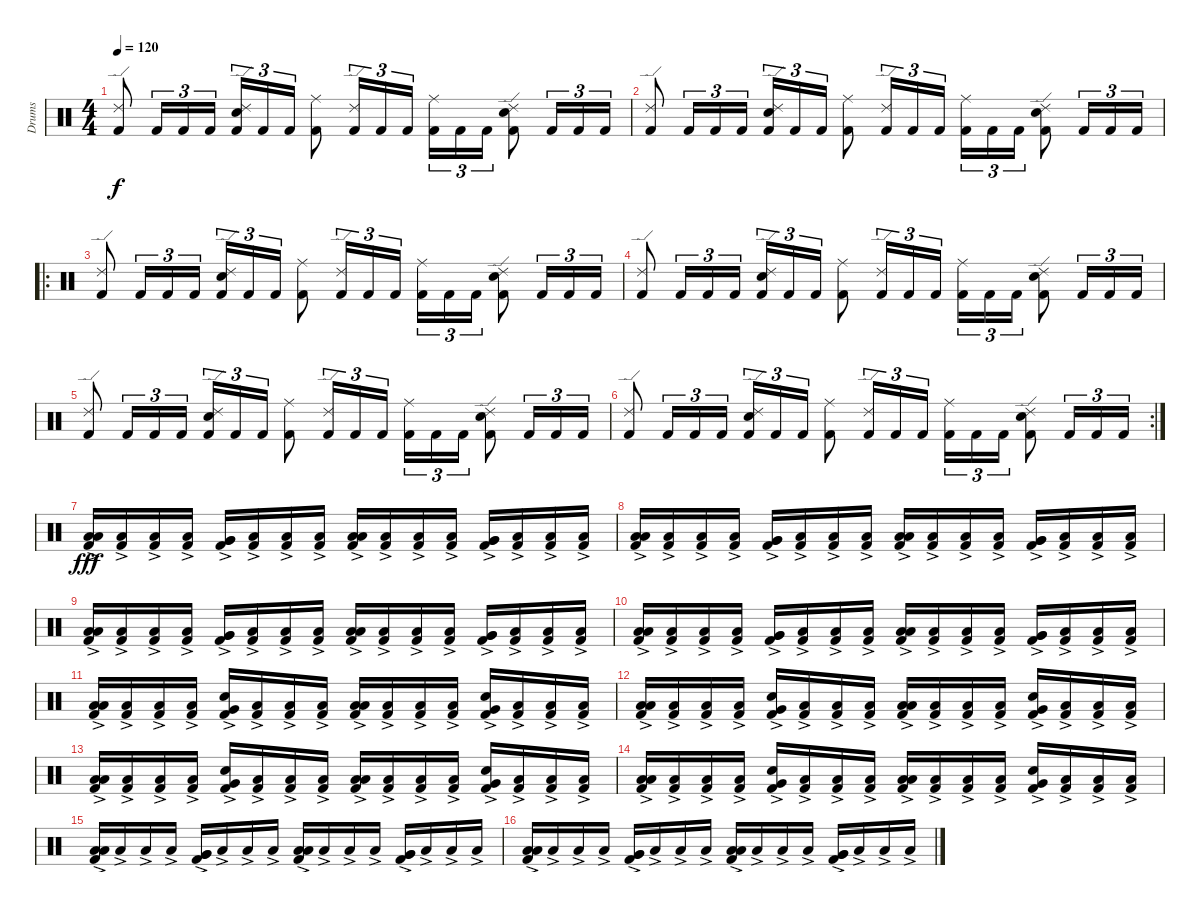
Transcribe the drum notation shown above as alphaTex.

\track ("Drums" "Drums") {instrument percussion}
\staff {score}
\articulation defaults
\ts (4 4)
\tempo 120
\clef neutral
\ks c
("Ride (edge) 2" "Kick (hit) 2").8{dy f} "Kick (hit) 2".16{tu (3 2)} "Kick (hit) 2".16{tu (3 2)} "Kick (hit) 2".16{tu (3 2)} ("Ride (edge) 2" "Electric Snare (hit)" "Kick (hit) 2").16{tu (3 2)} "Kick (hit) 2".16{tu (3 2)} "Kick (hit) 2".16{tu (3 2)} ("Ride (middle)" "Kick (hit) 2").8 ("Ride (edge) 2" "Kick (hit) 2").16{tu (3 2)} "Kick (hit) 2".16{tu (3 2)} "Kick (hit) 2".16{tu (3 2)} ("Ride (middle)" "Kick (hit) 2").16{tu (3 2)} "Kick (hit) 2".16{tu (3 2)} "Kick (hit) 2".16{tu (3 2)} ("Ride (edge) 2" "Electric Snare (hit)" "Kick (hit) 2").8 "Kick (hit) 2".16{tu (3 2)} "Kick (hit) 2".16{tu (3 2)} "Kick (hit) 2".16{tu (3 2)} |
("Ride (edge) 2" "Kick (hit) 2").8 "Kick (hit) 2".16{tu (3 2)} "Kick (hit) 2".16{tu (3 2)} "Kick (hit) 2".16{tu (3 2)} ("Ride (edge) 2" "Electric Snare (hit)" "Kick (hit) 2").16{tu (3 2)} "Kick (hit) 2".16{tu (3 2)} "Kick (hit) 2".16{tu (3 2)} ("Ride (middle)" "Kick (hit) 2").8 ("Ride (edge) 2" "Kick (hit) 2").16{tu (3 2)} "Kick (hit) 2".16{tu (3 2)} "Kick (hit) 2".16{tu (3 2)} ("Ride (middle)" "Kick (hit) 2").16{tu (3 2)} "Kick (hit) 2".16{tu (3 2)} "Kick (hit) 2".16{tu (3 2)} ("Ride (edge) 2" "Electric Snare (hit)" "Kick (hit) 2").8 "Kick (hit) 2".16{tu (3 2)} "Kick (hit) 2".16{tu (3 2)} "Kick (hit) 2".16{tu (3 2)} |
\ro
("Ride (edge) 2" "Kick (hit) 2").8 "Kick (hit) 2".16{tu (3 2)} "Kick (hit) 2".16{tu (3 2)} "Kick (hit) 2".16{tu (3 2)} ("Ride (edge) 2" "Electric Snare (hit)" "Kick (hit) 2").16{tu (3 2)} "Kick (hit) 2".16{tu (3 2)} "Kick (hit) 2".16{tu (3 2)} ("Ride (middle)" "Kick (hit) 2").8 ("Ride (edge) 2" "Kick (hit) 2").16{tu (3 2)} "Kick (hit) 2".16{tu (3 2)} "Kick (hit) 2".16{tu (3 2)} ("Ride (middle)" "Kick (hit) 2").16{tu (3 2)} "Kick (hit) 2".16{tu (3 2)} "Kick (hit) 2".16{tu (3 2)} ("Ride (edge) 2" "Electric Snare (hit)" "Kick (hit) 2").8 "Kick (hit) 2".16{tu (3 2)} "Kick (hit) 2".16{tu (3 2)} "Kick (hit) 2".16{tu (3 2)} |
("Ride (edge) 2" "Kick (hit) 2").8 "Kick (hit) 2".16{tu (3 2)} "Kick (hit) 2".16{tu (3 2)} "Kick (hit) 2".16{tu (3 2)} ("Ride (edge) 2" "Electric Snare (hit)" "Kick (hit) 2").16{tu (3 2)} "Kick (hit) 2".16{tu (3 2)} "Kick (hit) 2".16{tu (3 2)} ("Ride (middle)" "Kick (hit) 2").8 ("Ride (edge) 2" "Kick (hit) 2").16{tu (3 2)} "Kick (hit) 2".16{tu (3 2)} "Kick (hit) 2".16{tu (3 2)} ("Ride (middle)" "Kick (hit) 2").16{tu (3 2)} "Kick (hit) 2".16{tu (3 2)} "Kick (hit) 2".16{tu (3 2)} ("Ride (edge) 2" "Electric Snare (hit)" "Kick (hit) 2").8 "Kick (hit) 2".16{tu (3 2)} "Kick (hit) 2".16{tu (3 2)} "Kick (hit) 2".16{tu (3 2)} |
("Ride (edge) 2" "Kick (hit) 2").8 "Kick (hit) 2".16{tu (3 2)} "Kick (hit) 2".16{tu (3 2)} "Kick (hit) 2".16{tu (3 2)} ("Ride (edge) 2" "Electric Snare (hit)" "Kick (hit) 2").16{tu (3 2)} "Kick (hit) 2".16{tu (3 2)} "Kick (hit) 2".16{tu (3 2)} ("Ride (middle)" "Kick (hit) 2").8 ("Ride (edge) 2" "Kick (hit) 2").16{tu (3 2)} "Kick (hit) 2".16{tu (3 2)} "Kick (hit) 2".16{tu (3 2)} ("Ride (middle)" "Kick (hit) 2").16{tu (3 2)} "Kick (hit) 2".16{tu (3 2)} "Kick (hit) 2".16{tu (3 2)} ("Ride (edge) 2" "Electric Snare (hit)" "Kick (hit) 2").8 "Kick (hit) 2".16{tu (3 2)} "Kick (hit) 2".16{tu (3 2)} "Kick (hit) 2".16{tu (3 2)} |
\rc 2
("Ride (edge) 2" "Kick (hit) 2").8 "Kick (hit) 2".16{tu (3 2)} "Kick (hit) 2".16{tu (3 2)} "Kick (hit) 2".16{tu (3 2)} ("Ride (edge) 2" "Electric Snare (hit)" "Kick (hit) 2").16{tu (3 2)} "Kick (hit) 2".16{tu (3 2)} "Kick (hit) 2".16{tu (3 2)} ("Ride (middle)" "Kick (hit) 2").8 ("Ride (edge) 2" "Kick (hit) 2").16{tu (3 2)} "Kick (hit) 2".16{tu (3 2)} "Kick (hit) 2".16{tu (3 2)} ("Ride (middle)" "Kick (hit) 2").16{tu (3 2)} "Kick (hit) 2".16{tu (3 2)} "Kick (hit) 2".16{tu (3 2)} ("Ride (edge) 2" "Electric Snare (hit)" "Kick (hit) 2").8 "Kick (hit) 2".16{tu (3 2)} "Kick (hit) 2".16{tu (3 2)} "Kick (hit) 2".16{tu (3 2)} |
("Low Floor Tom (hit)"{ac} "Low Floor Tom (hit)"{ac} "Kick (hit) 2").16{dy fff} ("Low Floor Tom (hit)"{ac} "Kick (hit) 2").16 ("Low Floor Tom (hit)"{ac} "Kick (hit) 2").16 ("Low Floor Tom (hit)"{ac} "Kick (hit) 2").16 ("Very Low Tom (hit)"{ac} "Very Low Tom (hit)"{ac} "Kick (hit) 2").16 ("Low Floor Tom (hit)"{ac} "Kick (hit) 2").16 ("Low Floor Tom (hit)"{ac} "Kick (hit) 2").16 ("Low Floor Tom (hit)"{ac} "Kick (hit) 2").16 ("Low Floor Tom (hit)"{ac} "Low Floor Tom (hit)"{ac} "Kick (hit) 2").16 ("Low Floor Tom (hit)"{ac} "Kick (hit) 2").16 ("Low Floor Tom (hit)"{ac} "Kick (hit) 2").16 ("Low Floor Tom (hit)"{ac} "Kick (hit) 2").16 ("Very Low Tom (hit)"{ac} "Very Low Tom (hit)"{ac} "Kick (hit) 2").16 ("Low Floor Tom (hit)"{ac} "Kick (hit) 2").16 ("Low Floor Tom (hit)"{ac} "Kick (hit) 2").16 ("Low Floor Tom (hit)"{ac} "Kick (hit) 2").16 |
("Low Floor Tom (hit)"{ac} "Low Floor Tom (hit)"{ac} "Kick (hit) 2").16 ("Low Floor Tom (hit)"{ac} "Kick (hit) 2").16 ("Low Floor Tom (hit)"{ac} "Kick (hit) 2").16 ("Low Floor Tom (hit)"{ac} "Kick (hit) 2").16 ("Very Low Tom (hit)"{ac} "Very Low Tom (hit)"{ac} "Kick (hit) 2").16 ("Low Floor Tom (hit)"{ac} "Kick (hit) 2").16 ("Low Floor Tom (hit)"{ac} "Kick (hit) 2").16 ("Low Floor Tom (hit)"{ac} "Kick (hit) 2").16 ("Low Floor Tom (hit)"{ac} "Low Floor Tom (hit)"{ac} "Kick (hit) 2").16 ("Low Floor Tom (hit)"{ac} "Kick (hit) 2").16 ("Low Floor Tom (hit)"{ac} "Kick (hit) 2").16 ("Low Floor Tom (hit)"{ac} "Kick (hit) 2").16 ("Very Low Tom (hit)"{ac} "Very Low Tom (hit)"{ac} "Kick (hit) 2").16 ("Low Floor Tom (hit)"{ac} "Kick (hit) 2").16 ("Low Floor Tom (hit)"{ac} "Kick (hit) 2").16 ("Low Floor Tom (hit)"{ac} "Kick (hit) 2").16 |
("Low Floor Tom (hit)"{ac} "Low Floor Tom (hit)"{ac} "Kick (hit) 2").16 ("Low Floor Tom (hit)"{ac} "Kick (hit) 2").16 ("Low Floor Tom (hit)"{ac} "Kick (hit) 2").16 ("Low Floor Tom (hit)"{ac} "Kick (hit) 2").16 ("Very Low Tom (hit)"{ac} "Very Low Tom (hit)"{ac} "Kick (hit) 2").16 ("Low Floor Tom (hit)"{ac} "Kick (hit) 2").16 ("Low Floor Tom (hit)"{ac} "Kick (hit) 2").16 ("Low Floor Tom (hit)"{ac} "Kick (hit) 2").16 ("Low Floor Tom (hit)"{ac} "Low Floor Tom (hit)"{ac} "Kick (hit) 2").16 ("Low Floor Tom (hit)"{ac} "Kick (hit) 2").16 ("Low Floor Tom (hit)"{ac} "Kick (hit) 2").16 ("Low Floor Tom (hit)"{ac} "Kick (hit) 2").16 ("Very Low Tom (hit)"{ac} "Very Low Tom (hit)"{ac} "Kick (hit) 2").16 ("Low Floor Tom (hit)"{ac} "Kick (hit) 2").16 ("Low Floor Tom (hit)"{ac} "Kick (hit) 2").16 ("Low Floor Tom (hit)"{ac} "Kick (hit) 2").16 |
("Low Floor Tom (hit)"{ac} "Low Floor Tom (hit)"{ac} "Kick (hit) 2").16 ("Low Floor Tom (hit)"{ac} "Kick (hit) 2").16 ("Low Floor Tom (hit)"{ac} "Kick (hit) 2").16 ("Low Floor Tom (hit)"{ac} "Kick (hit) 2").16 ("Very Low Tom (hit)"{ac} "Very Low Tom (hit)"{ac} "Kick (hit) 2").16 ("Low Floor Tom (hit)"{ac} "Kick (hit) 2").16 ("Low Floor Tom (hit)"{ac} "Kick (hit) 2").16 ("Low Floor Tom (hit)"{ac} "Kick (hit) 2").16 ("Low Floor Tom (hit)"{ac} "Low Floor Tom (hit)"{ac} "Kick (hit) 2").16 ("Low Floor Tom (hit)"{ac} "Kick (hit) 2").16 ("Low Floor Tom (hit)"{ac} "Kick (hit) 2").16 ("Low Floor Tom (hit)"{ac} "Kick (hit) 2").16 ("Very Low Tom (hit)"{ac} "Very Low Tom (hit)"{ac} "Kick (hit) 2").16 ("Low Floor Tom (hit)"{ac} "Kick (hit) 2").16 ("Low Floor Tom (hit)"{ac} "Kick (hit) 2").16 ("Low Floor Tom (hit)"{ac} "Kick (hit) 2").16 |
("Low Floor Tom (hit)"{ac} "Low Floor Tom (hit)"{ac} "Kick (hit) 2").16 ("Low Floor Tom (hit)"{ac} "Kick (hit) 2").16 ("Low Floor Tom (hit)"{ac} "Kick (hit) 2").16 ("Low Floor Tom (hit)"{ac} "Kick (hit) 2").16 ("Very Low Tom (hit)"{ac} "Electric Snare (hit)" "Kick (hit) 2").16 ("Low Floor Tom (hit)"{ac} "Kick (hit) 2").16 ("Low Floor Tom (hit)"{ac} "Kick (hit) 2").16 ("Low Floor Tom (hit)"{ac} "Kick (hit) 2").16 ("Low Floor Tom (hit)"{ac} "Low Floor Tom (hit)"{ac} "Kick (hit) 2").16 ("Low Floor Tom (hit)"{ac} "Kick (hit) 2").16 ("Low Floor Tom (hit)"{ac} "Kick (hit) 2").16 ("Low Floor Tom (hit)"{ac} "Kick (hit) 2").16 ("Very Low Tom (hit)"{ac} "Electric Snare (hit)" "Kick (hit) 2").16 ("Low Floor Tom (hit)"{ac} "Kick (hit) 2").16 ("Low Floor Tom (hit)"{ac} "Kick (hit) 2").16 ("Low Floor Tom (hit)"{ac} "Kick (hit) 2").16 |
("Low Floor Tom (hit)"{ac} "Low Floor Tom (hit)"{ac} "Kick (hit) 2").16 ("Low Floor Tom (hit)"{ac} "Kick (hit) 2").16 ("Low Floor Tom (hit)"{ac} "Kick (hit) 2").16 ("Low Floor Tom (hit)"{ac} "Kick (hit) 2").16 ("Very Low Tom (hit)"{ac} "Electric Snare (hit)" "Kick (hit) 2").16 ("Low Floor Tom (hit)"{ac} "Kick (hit) 2").16 ("Low Floor Tom (hit)"{ac} "Kick (hit) 2").16 ("Low Floor Tom (hit)"{ac} "Kick (hit) 2").16 ("Low Floor Tom (hit)"{ac} "Low Floor Tom (hit)"{ac} "Kick (hit) 2").16 ("Low Floor Tom (hit)"{ac} "Kick (hit) 2").16 ("Low Floor Tom (hit)"{ac} "Kick (hit) 2").16 ("Low Floor Tom (hit)"{ac} "Kick (hit) 2").16 ("Very Low Tom (hit)"{ac} "Electric Snare (hit)" "Kick (hit) 2").16 ("Low Floor Tom (hit)"{ac} "Kick (hit) 2").16 ("Low Floor Tom (hit)"{ac} "Kick (hit) 2").16 ("Low Floor Tom (hit)"{ac} "Kick (hit) 2").16 |
("Low Floor Tom (hit)"{ac} "Low Floor Tom (hit)"{ac} "Kick (hit) 2").16 ("Low Floor Tom (hit)"{ac} "Kick (hit) 2").16 ("Low Floor Tom (hit)"{ac} "Kick (hit) 2").16 ("Low Floor Tom (hit)"{ac} "Kick (hit) 2").16 ("Very Low Tom (hit)"{ac} "Electric Snare (hit)" "Kick (hit) 2").16 ("Low Floor Tom (hit)"{ac} "Kick (hit) 2").16 ("Low Floor Tom (hit)"{ac} "Kick (hit) 2").16 ("Low Floor Tom (hit)"{ac} "Kick (hit) 2").16 ("Low Floor Tom (hit)"{ac} "Low Floor Tom (hit)"{ac} "Kick (hit) 2").16 ("Low Floor Tom (hit)"{ac} "Kick (hit) 2").16 ("Low Floor Tom (hit)"{ac} "Kick (hit) 2").16 ("Low Floor Tom (hit)"{ac} "Kick (hit) 2").16 ("Very Low Tom (hit)"{ac} "Electric Snare (hit)" "Kick (hit) 2").16 ("Low Floor Tom (hit)"{ac} "Kick (hit) 2").16 ("Low Floor Tom (hit)"{ac} "Kick (hit) 2").16 ("Low Floor Tom (hit)"{ac} "Kick (hit) 2").16 |
("Low Floor Tom (hit)"{ac} "Low Floor Tom (hit)"{ac} "Kick (hit) 2").16 ("Low Floor Tom (hit)"{ac} "Kick (hit) 2").16 ("Low Floor Tom (hit)"{ac} "Kick (hit) 2").16 ("Low Floor Tom (hit)"{ac} "Kick (hit) 2").16 ("Very Low Tom (hit)"{ac} "Electric Snare (hit)" "Kick (hit) 2").16 ("Low Floor Tom (hit)"{ac} "Kick (hit) 2").16 ("Low Floor Tom (hit)"{ac} "Kick (hit) 2").16 ("Low Floor Tom (hit)"{ac} "Kick (hit) 2").16 ("Low Floor Tom (hit)"{ac} "Low Floor Tom (hit)"{ac} "Kick (hit) 2").16 ("Low Floor Tom (hit)"{ac} "Kick (hit) 2").16 ("Low Floor Tom (hit)"{ac} "Kick (hit) 2").16 ("Low Floor Tom (hit)"{ac} "Kick (hit) 2").16 ("Very Low Tom (hit)"{ac} "Electric Snare (hit)" "Kick (hit) 2").16 ("Low Floor Tom (hit)"{ac} "Kick (hit) 2").16 ("Low Floor Tom (hit)"{ac} "Kick (hit) 2").16 ("Low Floor Tom (hit)"{ac} "Kick (hit) 2").16 |
("Low Floor Tom (hit)"{ac} "Low Floor Tom (hit)"{ac} "Kick (hit) 2").16 "Low Floor Tom (hit)"{ac}.16 "Low Floor Tom (hit)"{ac}.16 "Low Floor Tom (hit)"{ac}.16 ("Very Low Tom (hit)"{ac} "Very Low Tom (hit)"{ac} "Kick (hit) 2").16 "Low Floor Tom (hit)"{ac}.16 "Low Floor Tom (hit)"{ac}.16 "Low Floor Tom (hit)"{ac}.16 ("Low Floor Tom (hit)"{ac} "Low Floor Tom (hit)"{ac} "Kick (hit) 2").16 "Low Floor Tom (hit)"{ac}.16 "Low Floor Tom (hit)"{ac}.16 "Low Floor Tom (hit)"{ac}.16 ("Very Low Tom (hit)"{ac} "Very Low Tom (hit)"{ac} "Kick (hit) 2").16 "Low Floor Tom (hit)"{ac}.16 "Low Floor Tom (hit)"{ac}.16 "Low Floor Tom (hit)"{ac}.16 |
("Low Floor Tom (hit)"{ac} "Low Floor Tom (hit)"{ac} "Kick (hit) 2").16 "Low Floor Tom (hit)"{ac}.16 "Low Floor Tom (hit)"{ac}.16 "Low Floor Tom (hit)"{ac}.16 ("Very Low Tom (hit)"{ac} "Very Low Tom (hit)"{ac} "Kick (hit) 2").16 "Low Floor Tom (hit)"{ac}.16 "Low Floor Tom (hit)"{ac}.16 "Low Floor Tom (hit)"{ac}.16 ("Low Floor Tom (hit)"{ac} "Low Floor Tom (hit)"{ac} "Kick (hit) 2").16 "Low Floor Tom (hit)"{ac}.16 "Low Floor Tom (hit)"{ac}.16 "Low Floor Tom (hit)"{ac}.16 ("Very Low Tom (hit)"{ac} "Very Low Tom (hit)"{ac} "Kick (hit) 2").16 "Low Floor Tom (hit)"{ac}.16 "Low Floor Tom (hit)"{ac}.16 "Low Floor Tom (hit)"{ac}.16
